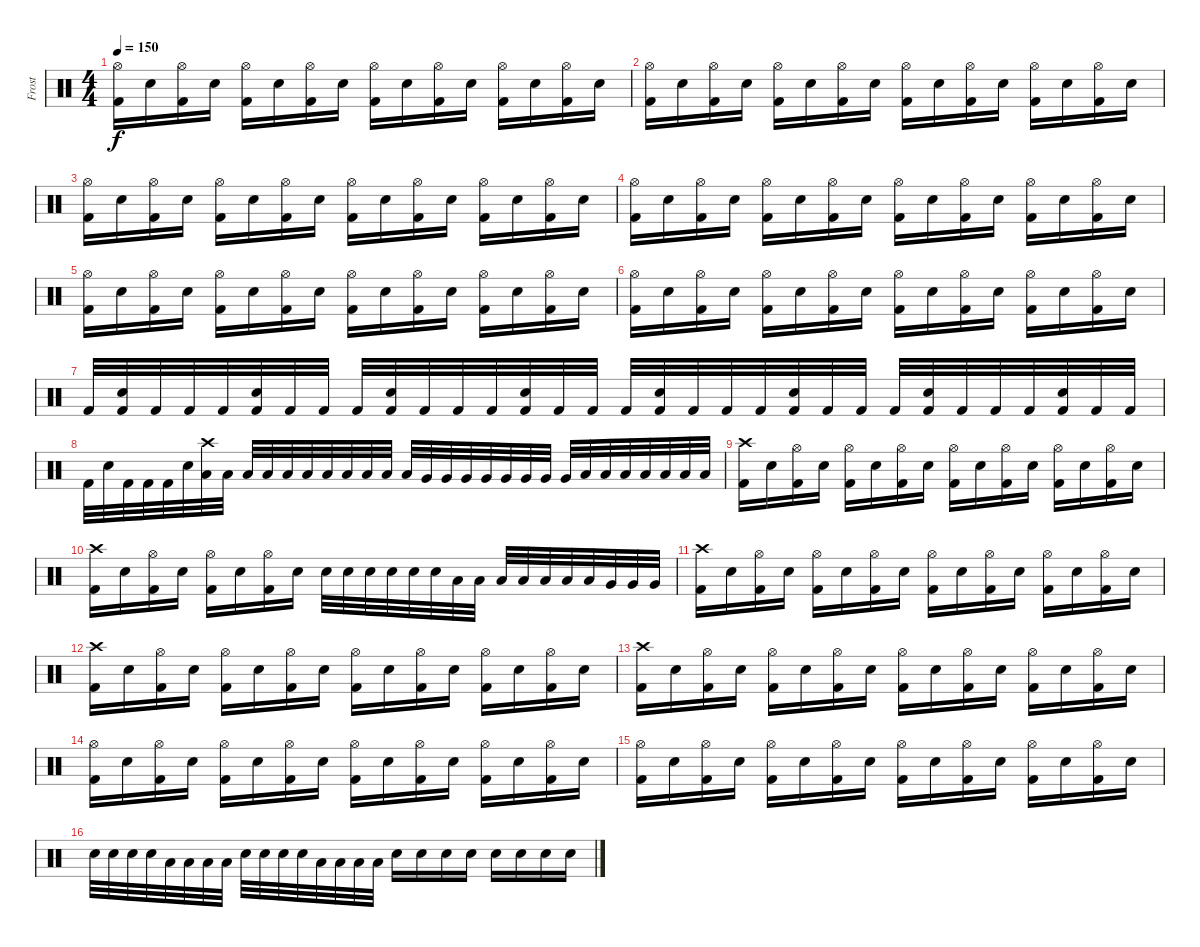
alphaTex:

\track ("Frost" "Frost") {instrument percussion}
\staff {score}
\articulation defaults
\ts (4 4)
\tempo 150
\clef neutral
\ks c
("Hi-Hat (open)" "Kick (hit) 2").16{dy f} "Snare (hit) 2".16 ("Hi-Hat (open)" "Kick (hit) 2").16 "Snare (hit) 2".16 ("Hi-Hat (open)" "Kick (hit) 2").16 "Snare (hit) 2".16 ("Hi-Hat (open)" "Kick (hit) 2").16 "Snare (hit) 2".16 ("Hi-Hat (open)" "Kick (hit) 2").16 "Snare (hit) 2".16 ("Hi-Hat (open)" "Kick (hit) 2").16 "Snare (hit) 2".16 ("Hi-Hat (open)" "Kick (hit) 2").16 "Snare (hit) 2".16 ("Hi-Hat (open)" "Kick (hit) 2").16 "Snare (hit) 2".16 |
("Hi-Hat (open)" "Kick (hit) 2").16 "Snare (hit) 2".16 ("Hi-Hat (open)" "Kick (hit) 2").16 "Snare (hit) 2".16 ("Hi-Hat (open)" "Kick (hit) 2").16 "Snare (hit) 2".16 ("Hi-Hat (open)" "Kick (hit) 2").16 "Snare (hit) 2".16 ("Hi-Hat (open)" "Kick (hit) 2").16 "Snare (hit) 2".16 ("Hi-Hat (open)" "Kick (hit) 2").16 "Snare (hit) 2".16 ("Hi-Hat (open)" "Kick (hit) 2").16 "Snare (hit) 2".16 ("Hi-Hat (open)" "Kick (hit) 2").16 "Snare (hit) 2".16 |
("Hi-Hat (open)" "Kick (hit) 2").16 "Snare (hit) 2".16 ("Hi-Hat (open)" "Kick (hit) 2").16 "Snare (hit) 2".16 ("Hi-Hat (open)" "Kick (hit) 2").16 "Snare (hit) 2".16 ("Hi-Hat (open)" "Kick (hit) 2").16 "Snare (hit) 2".16 ("Hi-Hat (open)" "Kick (hit) 2").16 "Snare (hit) 2".16 ("Hi-Hat (open)" "Kick (hit) 2").16 "Snare (hit) 2".16 ("Hi-Hat (open)" "Kick (hit) 2").16 "Snare (hit) 2".16 ("Hi-Hat (open)" "Kick (hit) 2").16 "Snare (hit) 2".16 |
("Hi-Hat (open)" "Kick (hit) 2").16 "Snare (hit) 2".16 ("Hi-Hat (open)" "Kick (hit) 2").16 "Snare (hit) 2".16 ("Hi-Hat (open)" "Kick (hit) 2").16 "Snare (hit) 2".16 ("Hi-Hat (open)" "Kick (hit) 2").16 "Snare (hit) 2".16 ("Hi-Hat (open)" "Kick (hit) 2").16 "Snare (hit) 2".16 ("Hi-Hat (open)" "Kick (hit) 2").16 "Snare (hit) 2".16 ("Hi-Hat (open)" "Kick (hit) 2").16 "Snare (hit) 2".16 ("Hi-Hat (open)" "Kick (hit) 2").16 "Snare (hit) 2".16 |
("Hi-Hat (open)" "Kick (hit) 2").16 "Snare (hit) 2".16 ("Hi-Hat (open)" "Kick (hit) 2").16 "Snare (hit) 2".16 ("Hi-Hat (open)" "Kick (hit) 2").16 "Snare (hit) 2".16 ("Hi-Hat (open)" "Kick (hit) 2").16 "Snare (hit) 2".16 ("Hi-Hat (open)" "Kick (hit) 2").16 "Snare (hit) 2".16 ("Hi-Hat (open)" "Kick (hit) 2").16 "Snare (hit) 2".16 ("Hi-Hat (open)" "Kick (hit) 2").16 "Snare (hit) 2".16 ("Hi-Hat (open)" "Kick (hit) 2").16 "Snare (hit) 2".16 |
("Hi-Hat (open)" "Kick (hit) 2").16 "Snare (hit) 2".16 ("Hi-Hat (open)" "Kick (hit) 2").16 "Snare (hit) 2".16 ("Hi-Hat (open)" "Kick (hit) 2").16 "Snare (hit) 2".16 ("Hi-Hat (open)" "Kick (hit) 2").16 "Snare (hit) 2".16 ("Hi-Hat (open)" "Kick (hit) 2").16 "Snare (hit) 2".16 ("Hi-Hat (open)" "Kick (hit) 2").16 "Snare (hit) 2".16 ("Hi-Hat (open)" "Kick (hit) 2").16 "Snare (hit) 2".16 ("Hi-Hat (open)" "Kick (hit) 2").16 "Snare (hit) 2".16 |
"Kick (hit) 2".32 ("Snare (hit) 2" "Kick (hit) 2").32 "Kick (hit) 2".32 "Kick (hit) 2".32 "Kick (hit) 2".32 ("Snare (hit) 2" "Kick (hit) 2").32 "Kick (hit) 2".32 "Kick (hit) 2".32 "Kick (hit) 2".32 ("Snare (hit) 2" "Kick (hit) 2").32 "Kick (hit) 2".32 "Kick (hit) 2".32 "Kick (hit) 2".32 ("Snare (hit) 2" "Kick (hit) 2").32 "Kick (hit) 2".32 "Kick (hit) 2".32 "Kick (hit) 2".32 ("Snare (hit) 2" "Kick (hit) 2").32 "Kick (hit) 2".32 "Kick (hit) 2".32 "Kick (hit) 2".32 ("Snare (hit) 2" "Kick (hit) 2").32 "Kick (hit) 2".32 "Kick (hit) 2".32 "Kick (hit) 2".32 ("Snare (hit) 2" "Kick (hit) 2").32 "Kick (hit) 2".32 "Kick (hit) 2".32 "Kick (hit) 2".32 ("Snare (hit) 2" "Kick (hit) 2").32 "Kick (hit) 2".32 "Kick (hit) 2".32 |
"Kick (hit) 2".32 "Snare (hit) 2".32 "Kick (hit) 2".32 "Kick (hit) 2".32 "Kick (hit) 2".32 "Snare (hit) 2".32 ("Crash high (hit)" "Low Tom (hit)").32 "Low Tom (hit)".32 "Low Tom (hit)".32 "Low Tom (hit)".32 "Low Tom (hit)".32 "Low Tom (hit)".32 "Low Tom (hit)".32 "Low Tom (hit)".32 "Low Tom (hit)".32 "Low Tom (hit)".32 "Low Tom (hit)".32 "Very Low Tom (hit)".32 "Very Low Tom (hit)".32 "Very Low Tom (hit)".32 "Very Low Tom (hit)".32 "Very Low Tom (hit)".32 "Very Low Tom (hit)".32 "Very Low Tom (hit)".32 "Very Low Tom (hit)".32 "Low Floor Tom (hit)".32 "Low Floor Tom (hit)".32 "Low Floor Tom (hit)".32 "Low Floor Tom (hit)".32 "Low Floor Tom (hit)".32 "Low Floor Tom (hit)".32 "Low Floor Tom (hit)".32 |
("Crash high (hit)" "Kick (hit) 2").16 "Snare (hit) 2".16 ("Hi-Hat (open)" "Kick (hit) 2").16 "Snare (hit) 2".16 ("Hi-Hat (open)" "Kick (hit) 2").16 "Snare (hit) 2".16 ("Hi-Hat (open)" "Kick (hit) 2").16 "Snare (hit) 2".16 ("Hi-Hat (open)" "Kick (hit) 2").16 "Snare (hit) 2".16 ("Hi-Hat (open)" "Kick (hit) 2").16 "Snare (hit) 2".16 ("Hi-Hat (open)" "Kick (hit) 2").16 "Snare (hit) 2".16 ("Hi-Hat (open)" "Kick (hit) 2").16 "Snare (hit) 2".16 |
("Crash high (hit)" "Kick (hit) 2").16 "Snare (hit) 2".16 ("Hi-Hat (open)" "Kick (hit) 2").16 "Snare (hit) 2".16 ("Hi-Hat (open)" "Kick (hit) 2").16 "Snare (hit) 2".16 ("Hi-Hat (open)" "Kick (hit) 2").16 "Snare (hit) 2".16 "Snare (hit) 2".32 "Snare (hit) 2".32 "Snare (hit) 2".32 "Snare (hit) 2".32 "Snare (hit) 2".32 "Snare (hit) 2".32 "Low Tom (hit)".32 "Low Tom (hit)".32 "Low Tom (hit)".32 "Low Tom (hit)".32 "Low Tom (hit)".32 "Low Tom (hit)".32 "Low Tom (hit)".32 "Very Low Tom (hit)".32 "Very Low Tom (hit)".32 "Very Low Tom (hit)".32 |
("Crash high (hit)" "Kick (hit) 2").16 "Snare (hit) 2".16 ("Hi-Hat (open)" "Kick (hit) 2").16 "Snare (hit) 2".16 ("Hi-Hat (open)" "Kick (hit) 2").16 "Snare (hit) 2".16 ("Hi-Hat (open)" "Kick (hit) 2").16 "Snare (hit) 2".16 ("Hi-Hat (open)" "Kick (hit) 2").16 "Snare (hit) 2".16 ("Hi-Hat (open)" "Kick (hit) 2").16 "Snare (hit) 2".16 ("Hi-Hat (open)" "Kick (hit) 2").16 "Snare (hit) 2".16 ("Hi-Hat (open)" "Kick (hit) 2").16 "Snare (hit) 2".16 |
("Crash high (hit)" "Kick (hit) 2").16 "Snare (hit) 2".16 ("Hi-Hat (open)" "Kick (hit) 2").16 "Snare (hit) 2".16 ("Hi-Hat (open)" "Kick (hit) 2").16 "Snare (hit) 2".16 ("Hi-Hat (open)" "Kick (hit) 2").16 "Snare (hit) 2".16 ("Hi-Hat (open)" "Kick (hit) 2").16 "Snare (hit) 2".16 ("Hi-Hat (open)" "Kick (hit) 2").16 "Snare (hit) 2".16 ("Hi-Hat (open)" "Kick (hit) 2").16 "Snare (hit) 2".16 ("Hi-Hat (open)" "Kick (hit) 2").16 "Snare (hit) 2".16 |
("Crash high (hit)" "Kick (hit) 2").16 "Snare (hit) 2".16 ("Hi-Hat (open)" "Kick (hit) 2").16 "Snare (hit) 2".16 ("Hi-Hat (open)" "Kick (hit) 2").16 "Snare (hit) 2".16 ("Hi-Hat (open)" "Kick (hit) 2").16 "Snare (hit) 2".16 ("Hi-Hat (open)" "Kick (hit) 2").16 "Snare (hit) 2".16 ("Hi-Hat (open)" "Kick (hit) 2").16 "Snare (hit) 2".16 ("Hi-Hat (open)" "Kick (hit) 2").16 "Snare (hit) 2".16 ("Hi-Hat (open)" "Kick (hit) 2").16 "Snare (hit) 2".16 |
("Hi-Hat (open)" "Kick (hit) 2").16 "Snare (hit) 2".16 ("Hi-Hat (open)" "Kick (hit) 2").16 "Snare (hit) 2".16 ("Hi-Hat (open)" "Kick (hit) 2").16 "Snare (hit) 2".16 ("Hi-Hat (open)" "Kick (hit) 2").16 "Snare (hit) 2".16 ("Hi-Hat (open)" "Kick (hit) 2").16 "Snare (hit) 2".16 ("Hi-Hat (open)" "Kick (hit) 2").16 "Snare (hit) 2".16 ("Hi-Hat (open)" "Kick (hit) 2").16 "Snare (hit) 2".16 ("Hi-Hat (open)" "Kick (hit) 2").16 "Snare (hit) 2".16 |
("Hi-Hat (open)" "Kick (hit) 2").16 "Snare (hit) 2".16 ("Hi-Hat (open)" "Kick (hit) 2").16 "Snare (hit) 2".16 ("Hi-Hat (open)" "Kick (hit) 2").16 "Snare (hit) 2".16 ("Hi-Hat (open)" "Kick (hit) 2").16 "Snare (hit) 2".16 ("Hi-Hat (open)" "Kick (hit) 2").16 "Snare (hit) 2".16 ("Hi-Hat (open)" "Kick (hit) 2").16 "Snare (hit) 2".16 ("Hi-Hat (open)" "Kick (hit) 2").16 "Snare (hit) 2".16 ("Hi-Hat (open)" "Kick (hit) 2").16 "Snare (hit) 2".16 |
"Snare (hit) 2".32 "Snare (hit) 2".32 "Snare (hit) 2".32 "Snare (hit) 2".32 "Low Tom (hit)".32 "Low Tom (hit)".32 "Low Tom (hit)".32 "Low Tom (hit)".32 "Snare (hit) 2".32 "Snare (hit) 2".32 "Snare (hit) 2".32 "Snare (hit) 2".32 "Low Tom (hit)".32 "Low Tom (hit)".32 "Low Tom (hit)".32 "Low Tom (hit)".32 "Snare (hit) 2".16 "Snare (hit) 2".16 "Snare (hit) 2".16 "Snare (hit) 2".16 "Snare (hit) 2".16 "Snare (hit) 2".16 "Snare (hit) 2".16 "Snare (hit) 2".16
